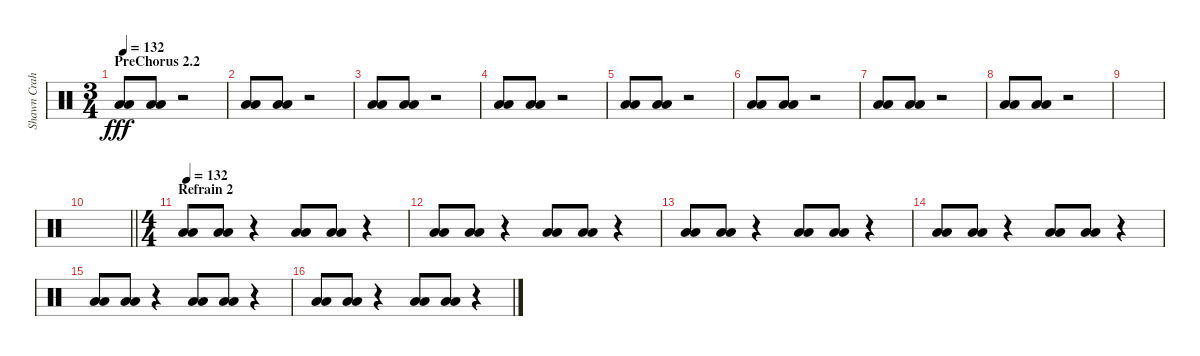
\track ("Shawn Crahan" "Shawn Crah") {instrument percussion}
\staff {score}
\articulation defaults
\ts (3 4)
\section ("" "PreChorus 2.2")
\tempo 132
\clef neutral
\ks c
("Low Floor Tom (hit)" "Low Floor Tom (hit)").8{dy fff} ("Low Floor Tom (hit)" "Low Floor Tom (hit)").8 r.2 |
("Low Floor Tom (hit)" "Low Floor Tom (hit)").8 ("Low Floor Tom (hit)" "Low Floor Tom (hit)").8 r.2 |
("Low Floor Tom (hit)" "Low Floor Tom (hit)").8 ("Low Floor Tom (hit)" "Low Floor Tom (hit)").8 r.2 |
("Low Floor Tom (hit)" "Low Floor Tom (hit)").8 ("Low Floor Tom (hit)" "Low Floor Tom (hit)").8 r.2 |
("Low Floor Tom (hit)" "Low Floor Tom (hit)").8 ("Low Floor Tom (hit)" "Low Floor Tom (hit)").8 r.2 |
("Low Floor Tom (hit)" "Low Floor Tom (hit)").8 ("Low Floor Tom (hit)" "Low Floor Tom (hit)").8 r.2 |
("Low Floor Tom (hit)" "Low Floor Tom (hit)").8 ("Low Floor Tom (hit)" "Low Floor Tom (hit)").8 r.2 |
("Low Floor Tom (hit)" "Low Floor Tom (hit)").8 ("Low Floor Tom (hit)" "Low Floor Tom (hit)").8 r.2 |
|
\barLineRight lightlight
|
\ts (4 4)
\section ("" "Refrain 2")
\tempo 132
("Low Floor Tom (hit)" "Low Floor Tom (hit)").8 ("Low Floor Tom (hit)" "Low Floor Tom (hit)").8 r.4 ("Low Floor Tom (hit)" "Low Floor Tom (hit)").8 ("Low Floor Tom (hit)" "Low Floor Tom (hit)").8 r.4 |
("Low Floor Tom (hit)" "Low Floor Tom (hit)").8 ("Low Floor Tom (hit)" "Low Floor Tom (hit)").8 r.4 ("Low Floor Tom (hit)" "Low Floor Tom (hit)").8 ("Low Floor Tom (hit)" "Low Floor Tom (hit)").8 r.4 |
("Low Floor Tom (hit)" "Low Floor Tom (hit)").8 ("Low Floor Tom (hit)" "Low Floor Tom (hit)").8 r.4 ("Low Floor Tom (hit)" "Low Floor Tom (hit)").8 ("Low Floor Tom (hit)" "Low Floor Tom (hit)").8 r.4 |
("Low Floor Tom (hit)" "Low Floor Tom (hit)").8 ("Low Floor Tom (hit)" "Low Floor Tom (hit)").8 r.4 ("Low Floor Tom (hit)" "Low Floor Tom (hit)").8 ("Low Floor Tom (hit)" "Low Floor Tom (hit)").8 r.4 |
("Low Floor Tom (hit)" "Low Floor Tom (hit)").8 ("Low Floor Tom (hit)" "Low Floor Tom (hit)").8 r.4 ("Low Floor Tom (hit)" "Low Floor Tom (hit)").8 ("Low Floor Tom (hit)" "Low Floor Tom (hit)").8 r.4 |
("Low Floor Tom (hit)" "Low Floor Tom (hit)").8 ("Low Floor Tom (hit)" "Low Floor Tom (hit)").8 r.4 ("Low Floor Tom (hit)" "Low Floor Tom (hit)").8 ("Low Floor Tom (hit)" "Low Floor Tom (hit)").8 r.4
